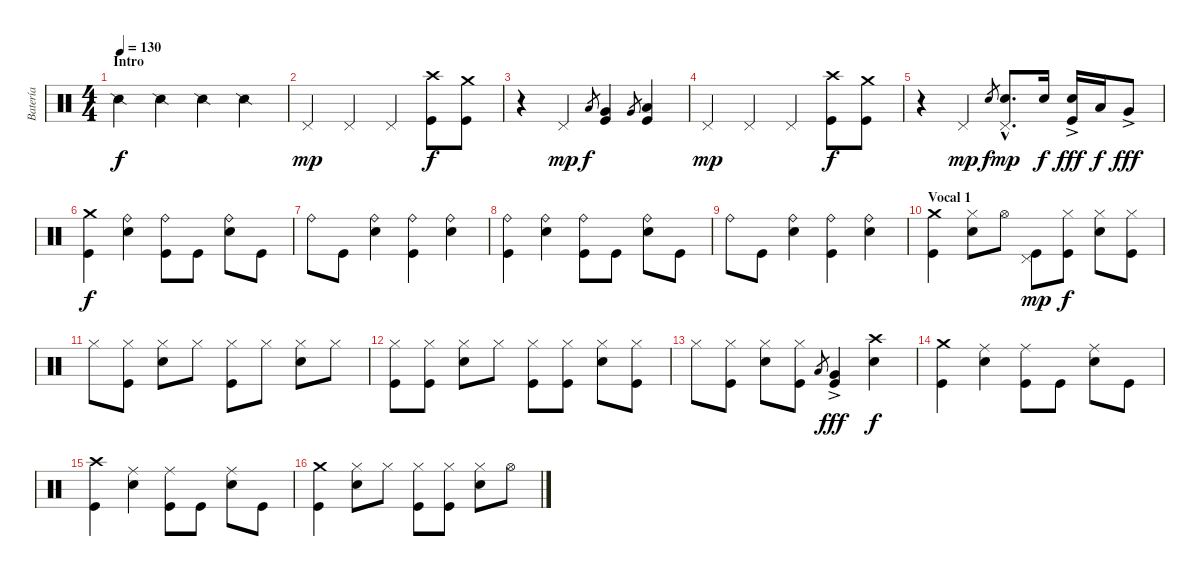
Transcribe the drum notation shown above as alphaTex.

\track ("Batería" "Batería") {instrument percussion}
\staff {score}
\articulation defaults
\ts (4 4)
\section ("" "Intro")
\tempo 130
\clef neutral
\ks c "Snare (side stick) 2".4{dy f} "Snare (side stick) 2".4 "Snare (side stick) 2".4 "Snare (side stick) 2".4
|
"Pedal Hi-Hat (hit)".4{dy mp} "Pedal Hi-Hat (hit)".4 "Pedal Hi-Hat (hit)".4 ("Kick (hit)" "Crash high (hit)").8{dy f} ("Kick (hit)" "Crash medium (hit)").8 |
r.4 "Pedal Hi-Hat (hit)".4{dy mp} "Low Tom (hit)".8{gr dy f} ("Kick (hit)" "Very Low Tom (hit)").4 "Very Low Tom (hit)".8{gr} ("Kick (hit)" "Low Floor Tom (hit)").4 |
"Pedal Hi-Hat (hit)".4{dy mp} "Pedal Hi-Hat (hit)".4 "Pedal Hi-Hat (hit)".4 ("Kick (hit)" "Crash high (hit)").8{dy f} ("Kick (hit)" "Crash medium (hit)").8 |
r.4 "Pedal Hi-Hat (hit)".4{dy mp} "Electric Snare (hit)".8{gr dy f} ("Electric Snare (hit)"{hac} "Pedal Hi-Hat (hit)"{hac}).8{d dy mp} "Electric Snare (hit)".16{dy f} ("Kick (hit)" "Electric Snare (hit)"{ac}).16{dy fff} "Low Tom (hit)".16{dy f} "Very Low Tom (hit)"{ac}.8{dy fff} |
("Kick (hit)" "Crash medium (hit)").4{dy f} ("Electric Snare (hit)" "Ride (bell)").4 ("Kick (hit)" "Ride (bell)").8 "Kick (hit)".8 ("Electric Snare (hit)" "Ride (bell)").8 "Kick (hit)".8 |
"Ride (bell)".8 "Kick (hit)".8 ("Electric Snare (hit)" "Ride (bell)").4 ("Kick (hit)" "Ride (bell)").4 ("Electric Snare (hit)" "Ride (bell)").4 |
("Kick (hit)" "Ride (bell)").4 ("Electric Snare (hit)" "Ride (bell)").4 ("Kick (hit)" "Ride (bell)").8 "Kick (hit)".8 ("Electric Snare (hit)" "Ride (bell)").8 "Kick (hit)".8 |
"Ride (bell)".8 "Kick (hit)".8 ("Electric Snare (hit)" "Ride (bell)").4 ("Kick (hit)" "Ride (bell)").4 ("Electric Snare (hit)" "Ride (bell)").4 |
\section ("" "Vocal 1")
("Kick (hit)" "Crash medium (hit)").4 ("Electric Snare (hit)" "Hi-Hat (closed)").8 "Hi-Hat (open)".8 ("Kick (hit)" "Pedal Hi-Hat (hit)").8{dy mp} ("Kick (hit)" "Hi-Hat (closed)").8{dy f} ("Electric Snare (hit)" "Hi-Hat (closed)").8 ("Kick (hit)" "Hi-Hat (closed)").8 |
"Hi-Hat (closed)".8 ("Kick (hit)" "Hi-Hat (closed)").8 ("Electric Snare (hit)" "Hi-Hat (closed)").8 "Hi-Hat (closed)".8 ("Kick (hit)" "Hi-Hat (closed)").8 "Hi-Hat (closed)".8 ("Electric Snare (hit)" "Hi-Hat (closed)").8 "Hi-Hat (closed)".8 |
("Kick (hit)" "Hi-Hat (closed)").8 ("Kick (hit)" "Hi-Hat (closed)").8 ("Electric Snare (hit)" "Hi-Hat (closed)").8 "Hi-Hat (closed)".8 ("Kick (hit)" "Hi-Hat (closed)").8 ("Kick (hit)" "Hi-Hat (closed)").8 ("Electric Snare (hit)" "Hi-Hat (closed)").8 ("Kick (hit)" "Hi-Hat (closed)").8 |
"Hi-Hat (closed)".8 ("Kick (hit)" "Hi-Hat (closed)").8 ("Electric Snare (hit)" "Hi-Hat (closed)").8 ("Kick (hit)" "Hi-Hat (closed)").8 "Low Tom (hit)".8{gr} ("Kick (hit)" "Very Low Tom (hit)"{ac}).4{dy fff} ("Electric Snare (hit)" "Crash high (hit)").4{dy f} |
("Kick (hit)" "Crash medium (hit)").4 ("Electric Snare (hit)" "Ride (middle)").4 ("Kick (hit)" "Ride (middle)").8 "Kick (hit)".8 ("Electric Snare (hit)" "Ride (middle)").8 "Kick (hit)".8 |
("Kick (hit)" "Crash high (hit)").4 ("Electric Snare (hit)" "Ride (middle)").4 ("Kick (hit)" "Ride (middle)").8 "Kick (hit)".8 ("Electric Snare (hit)" "Ride (middle)").8 "Kick (hit)".8 |
("Kick (hit)" "Crash medium (hit)").4 ("Electric Snare (hit)" "Hi-Hat (closed)").8 "Hi-Hat (closed)".8 ("Kick (hit)" "Hi-Hat (closed)").8 ("Kick (hit)" "Hi-Hat (closed)").8 ("Electric Snare (hit)" "Hi-Hat (closed)").8 "Hi-Hat (open)".8
